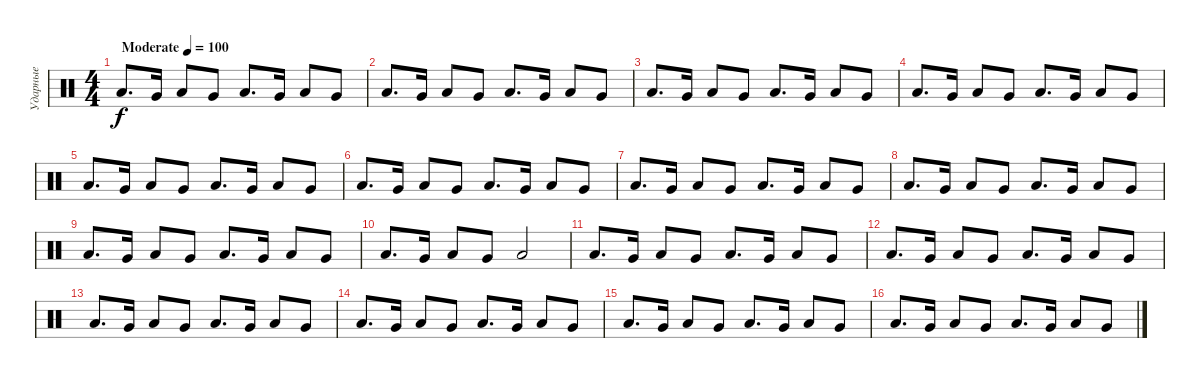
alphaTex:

\track ("Ударные" "Ударные") {instrument percussion}
\staff {score}
\articulation defaults
\ts (4 4)
\tempo (100 "Moderate")
\clef neutral
\ks c "Low Floor Tom (hit)".8{d dy f} "Very Low Tom (hit)".16 "Low Floor Tom (hit)".8 "Very Low Tom (hit)".8 "Low Floor Tom (hit)".8{d} "Very Low Tom (hit)".16 "Low Floor Tom (hit)".8 "Very Low Tom (hit)".8
|
"Low Floor Tom (hit)".8{d} "Very Low Tom (hit)".16 "Low Floor Tom (hit)".8 "Very Low Tom (hit)".8 "Low Floor Tom (hit)".8{d} "Very Low Tom (hit)".16 "Low Floor Tom (hit)".8 "Very Low Tom (hit)".8 |
"Low Floor Tom (hit)".8{d} "Very Low Tom (hit)".16 "Low Floor Tom (hit)".8 "Very Low Tom (hit)".8 "Low Floor Tom (hit)".8{d} "Very Low Tom (hit)".16 "Low Floor Tom (hit)".8 "Very Low Tom (hit)".8 |
"Low Floor Tom (hit)".8{d} "Very Low Tom (hit)".16 "Low Floor Tom (hit)".8 "Very Low Tom (hit)".8 "Low Floor Tom (hit)".8{d} "Very Low Tom (hit)".16 "Low Floor Tom (hit)".8 "Very Low Tom (hit)".8 |
"Low Floor Tom (hit)".8{d} "Very Low Tom (hit)".16 "Low Floor Tom (hit)".8 "Very Low Tom (hit)".8 "Low Floor Tom (hit)".8{d} "Very Low Tom (hit)".16 "Low Floor Tom (hit)".8 "Very Low Tom (hit)".8 |
"Low Floor Tom (hit)".8{d} "Very Low Tom (hit)".16 "Low Floor Tom (hit)".8 "Very Low Tom (hit)".8 "Low Floor Tom (hit)".8{d} "Very Low Tom (hit)".16 "Low Floor Tom (hit)".8 "Very Low Tom (hit)".8 |
"Low Floor Tom (hit)".8{d} "Very Low Tom (hit)".16 "Low Floor Tom (hit)".8 "Very Low Tom (hit)".8 "Low Floor Tom (hit)".8{d} "Very Low Tom (hit)".16 "Low Floor Tom (hit)".8 "Very Low Tom (hit)".8 |
"Low Floor Tom (hit)".8{d} "Very Low Tom (hit)".16 "Low Floor Tom (hit)".8 "Very Low Tom (hit)".8 "Low Floor Tom (hit)".8{d} "Very Low Tom (hit)".16 "Low Floor Tom (hit)".8 "Very Low Tom (hit)".8 |
"Low Floor Tom (hit)".8{d} "Very Low Tom (hit)".16 "Low Floor Tom (hit)".8 "Very Low Tom (hit)".8 "Low Floor Tom (hit)".8{d} "Very Low Tom (hit)".16 "Low Floor Tom (hit)".8 "Very Low Tom (hit)".8 |
"Low Floor Tom (hit)".8{d} "Very Low Tom (hit)".16 "Low Floor Tom (hit)".8 "Very Low Tom (hit)".8 "Low Floor Tom (hit)".2 |
"Low Floor Tom (hit)".8{d} "Very Low Tom (hit)".16 "Low Floor Tom (hit)".8 "Very Low Tom (hit)".8 "Low Floor Tom (hit)".8{d} "Very Low Tom (hit)".16 "Low Floor Tom (hit)".8 "Very Low Tom (hit)".8 |
"Low Floor Tom (hit)".8{d} "Very Low Tom (hit)".16 "Low Floor Tom (hit)".8 "Very Low Tom (hit)".8 "Low Floor Tom (hit)".8{d} "Very Low Tom (hit)".16 "Low Floor Tom (hit)".8 "Very Low Tom (hit)".8 |
"Low Floor Tom (hit)".8{d} "Very Low Tom (hit)".16 "Low Floor Tom (hit)".8 "Very Low Tom (hit)".8 "Low Floor Tom (hit)".8{d} "Very Low Tom (hit)".16 "Low Floor Tom (hit)".8 "Very Low Tom (hit)".8 |
"Low Floor Tom (hit)".8{d} "Very Low Tom (hit)".16 "Low Floor Tom (hit)".8 "Very Low Tom (hit)".8 "Low Floor Tom (hit)".8{d} "Very Low Tom (hit)".16 "Low Floor Tom (hit)".8 "Very Low Tom (hit)".8 |
"Low Floor Tom (hit)".8{d} "Very Low Tom (hit)".16 "Low Floor Tom (hit)".8 "Very Low Tom (hit)".8 "Low Floor Tom (hit)".8{d} "Very Low Tom (hit)".16 "Low Floor Tom (hit)".8 "Very Low Tom (hit)".8 |
"Low Floor Tom (hit)".8{d} "Very Low Tom (hit)".16 "Low Floor Tom (hit)".8 "Very Low Tom (hit)".8 "Low Floor Tom (hit)".8{d} "Very Low Tom (hit)".16 "Low Floor Tom (hit)".8 "Very Low Tom (hit)".8
